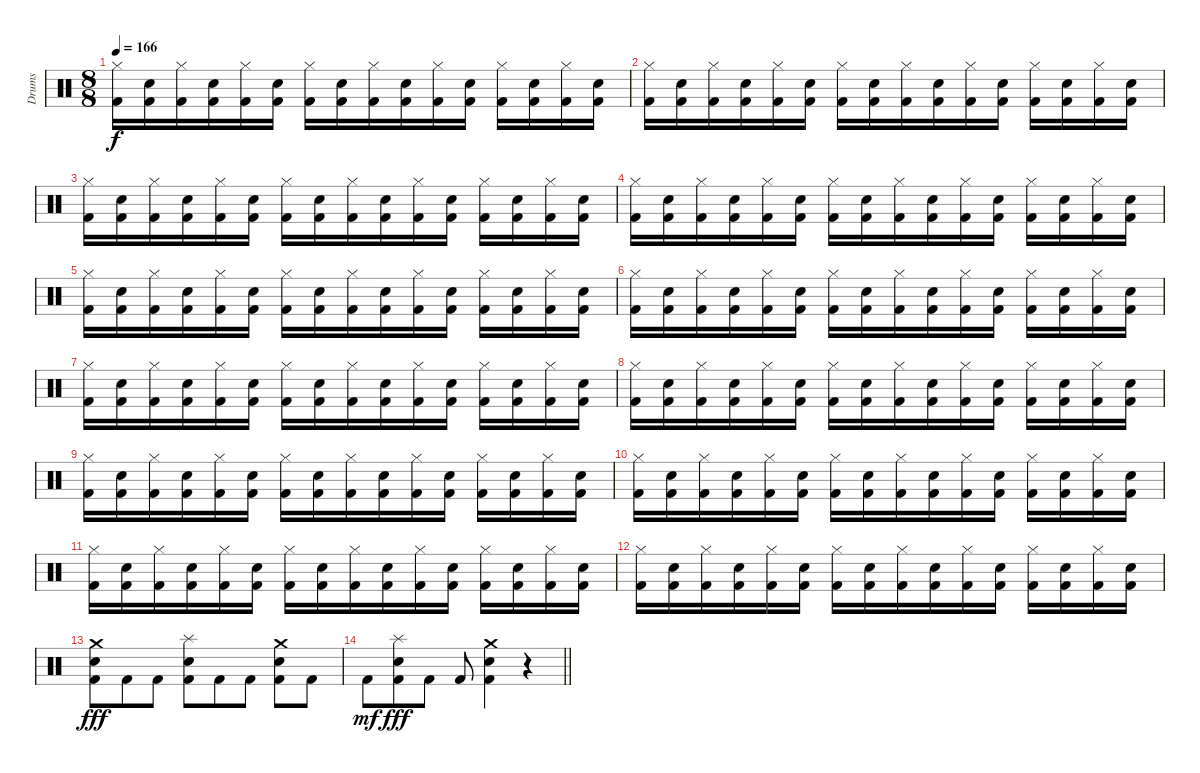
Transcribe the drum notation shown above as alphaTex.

\track ("Drums" "Drums") {instrument percussion}
\staff {score}
\articulation defaults
\ts (8 8)
\tempo 166
\clef neutral
\ks c
("Hi-Hat (closed)" "Kick (hit) 2").16{dy f} ("Electric Snare (hit)" "Kick (hit) 2").16 ("Hi-Hat (closed)" "Kick (hit) 2").16 ("Electric Snare (hit)" "Kick (hit) 2").16 ("Hi-Hat (closed)" "Kick (hit) 2").16 ("Electric Snare (hit)" "Kick (hit) 2").16 ("Hi-Hat (closed)" "Kick (hit) 2").16 ("Electric Snare (hit)" "Kick (hit) 2").16 ("Hi-Hat (closed)" "Kick (hit) 2").16 ("Electric Snare (hit)" "Kick (hit) 2").16 ("Hi-Hat (closed)" "Kick (hit) 2").16 ("Electric Snare (hit)" "Kick (hit) 2").16 ("Hi-Hat (closed)" "Kick (hit) 2").16 ("Electric Snare (hit)" "Kick (hit) 2").16 ("Hi-Hat (closed)" "Kick (hit) 2").16 ("Electric Snare (hit)" "Kick (hit) 2").16 |
("Hi-Hat (closed)" "Kick (hit) 2").16 ("Electric Snare (hit)" "Kick (hit) 2").16 ("Hi-Hat (closed)" "Kick (hit) 2").16 ("Electric Snare (hit)" "Kick (hit) 2").16 ("Hi-Hat (closed)" "Kick (hit) 2").16 ("Electric Snare (hit)" "Kick (hit) 2").16 ("Hi-Hat (closed)" "Kick (hit) 2").16 ("Electric Snare (hit)" "Kick (hit) 2").16 ("Hi-Hat (closed)" "Kick (hit) 2").16 ("Electric Snare (hit)" "Kick (hit) 2").16 ("Hi-Hat (closed)" "Kick (hit) 2").16 ("Electric Snare (hit)" "Kick (hit) 2").16 ("Hi-Hat (closed)" "Kick (hit) 2").16 ("Electric Snare (hit)" "Kick (hit) 2").16 ("Hi-Hat (closed)" "Kick (hit) 2").16 ("Electric Snare (hit)" "Kick (hit) 2").16 |
("Hi-Hat (closed)" "Kick (hit) 2").16 ("Electric Snare (hit)" "Kick (hit) 2").16 ("Hi-Hat (closed)" "Kick (hit) 2").16 ("Electric Snare (hit)" "Kick (hit) 2").16 ("Hi-Hat (closed)" "Kick (hit) 2").16 ("Electric Snare (hit)" "Kick (hit) 2").16 ("Hi-Hat (closed)" "Kick (hit) 2").16 ("Electric Snare (hit)" "Kick (hit) 2").16 ("Hi-Hat (closed)" "Kick (hit) 2").16 ("Electric Snare (hit)" "Kick (hit) 2").16 ("Hi-Hat (closed)" "Kick (hit) 2").16 ("Electric Snare (hit)" "Kick (hit) 2").16 ("Hi-Hat (closed)" "Kick (hit) 2").16 ("Electric Snare (hit)" "Kick (hit) 2").16 ("Hi-Hat (closed)" "Kick (hit) 2").16 ("Electric Snare (hit)" "Kick (hit) 2").16 |
("Hi-Hat (closed)" "Kick (hit) 2").16 ("Electric Snare (hit)" "Kick (hit) 2").16 ("Hi-Hat (closed)" "Kick (hit) 2").16 ("Electric Snare (hit)" "Kick (hit) 2").16 ("Hi-Hat (closed)" "Kick (hit) 2").16 ("Electric Snare (hit)" "Kick (hit) 2").16 ("Hi-Hat (closed)" "Kick (hit) 2").16 ("Electric Snare (hit)" "Kick (hit) 2").16 ("Hi-Hat (closed)" "Kick (hit) 2").16 ("Electric Snare (hit)" "Kick (hit) 2").16 ("Hi-Hat (closed)" "Kick (hit) 2").16 ("Electric Snare (hit)" "Kick (hit) 2").16 ("Hi-Hat (closed)" "Kick (hit) 2").16 ("Electric Snare (hit)" "Kick (hit) 2").16 ("Hi-Hat (closed)" "Kick (hit) 2").16 ("Electric Snare (hit)" "Kick (hit) 2").16 |
("Hi-Hat (closed)" "Kick (hit) 2").16 ("Electric Snare (hit)" "Kick (hit) 2").16 ("Hi-Hat (closed)" "Kick (hit) 2").16 ("Electric Snare (hit)" "Kick (hit) 2").16 ("Hi-Hat (closed)" "Kick (hit) 2").16 ("Electric Snare (hit)" "Kick (hit) 2").16 ("Hi-Hat (closed)" "Kick (hit) 2").16 ("Electric Snare (hit)" "Kick (hit) 2").16 ("Hi-Hat (closed)" "Kick (hit) 2").16 ("Electric Snare (hit)" "Kick (hit) 2").16 ("Hi-Hat (closed)" "Kick (hit) 2").16 ("Electric Snare (hit)" "Kick (hit) 2").16 ("Hi-Hat (closed)" "Kick (hit) 2").16 ("Electric Snare (hit)" "Kick (hit) 2").16 ("Hi-Hat (closed)" "Kick (hit) 2").16 ("Electric Snare (hit)" "Kick (hit) 2").16 |
("Hi-Hat (closed)" "Kick (hit) 2").16 ("Electric Snare (hit)" "Kick (hit) 2").16 ("Hi-Hat (closed)" "Kick (hit) 2").16 ("Electric Snare (hit)" "Kick (hit) 2").16 ("Hi-Hat (closed)" "Kick (hit) 2").16 ("Electric Snare (hit)" "Kick (hit) 2").16 ("Hi-Hat (closed)" "Kick (hit) 2").16 ("Electric Snare (hit)" "Kick (hit) 2").16 ("Hi-Hat (closed)" "Kick (hit) 2").16 ("Electric Snare (hit)" "Kick (hit) 2").16 ("Hi-Hat (closed)" "Kick (hit) 2").16 ("Electric Snare (hit)" "Kick (hit) 2").16 ("Hi-Hat (closed)" "Kick (hit) 2").16 ("Electric Snare (hit)" "Kick (hit) 2").16 ("Hi-Hat (closed)" "Kick (hit) 2").16 ("Electric Snare (hit)" "Kick (hit) 2").16 |
("Hi-Hat (closed)" "Kick (hit) 2").16 ("Electric Snare (hit)" "Kick (hit) 2").16 ("Hi-Hat (closed)" "Kick (hit) 2").16 ("Electric Snare (hit)" "Kick (hit) 2").16 ("Hi-Hat (closed)" "Kick (hit) 2").16 ("Electric Snare (hit)" "Kick (hit) 2").16 ("Hi-Hat (closed)" "Kick (hit) 2").16 ("Electric Snare (hit)" "Kick (hit) 2").16 ("Hi-Hat (closed)" "Kick (hit) 2").16 ("Electric Snare (hit)" "Kick (hit) 2").16 ("Hi-Hat (closed)" "Kick (hit) 2").16 ("Electric Snare (hit)" "Kick (hit) 2").16 ("Hi-Hat (closed)" "Kick (hit) 2").16 ("Electric Snare (hit)" "Kick (hit) 2").16 ("Hi-Hat (closed)" "Kick (hit) 2").16 ("Electric Snare (hit)" "Kick (hit) 2").16 |
("Hi-Hat (closed)" "Kick (hit) 2").16 ("Electric Snare (hit)" "Kick (hit) 2").16 ("Hi-Hat (closed)" "Kick (hit) 2").16 ("Electric Snare (hit)" "Kick (hit) 2").16 ("Hi-Hat (closed)" "Kick (hit) 2").16 ("Electric Snare (hit)" "Kick (hit) 2").16 ("Hi-Hat (closed)" "Kick (hit) 2").16 ("Electric Snare (hit)" "Kick (hit) 2").16 ("Hi-Hat (closed)" "Kick (hit) 2").16 ("Electric Snare (hit)" "Kick (hit) 2").16 ("Hi-Hat (closed)" "Kick (hit) 2").16 ("Electric Snare (hit)" "Kick (hit) 2").16 ("Hi-Hat (closed)" "Kick (hit) 2").16 ("Electric Snare (hit)" "Kick (hit) 2").16 ("Hi-Hat (closed)" "Kick (hit) 2").16 ("Electric Snare (hit)" "Kick (hit) 2").16 |
("Hi-Hat (closed)" "Kick (hit) 2").16 ("Electric Snare (hit)" "Kick (hit) 2").16 ("Hi-Hat (closed)" "Kick (hit) 2").16 ("Electric Snare (hit)" "Kick (hit) 2").16 ("Hi-Hat (closed)" "Kick (hit) 2").16 ("Electric Snare (hit)" "Kick (hit) 2").16 ("Hi-Hat (closed)" "Kick (hit) 2").16 ("Electric Snare (hit)" "Kick (hit) 2").16 ("Hi-Hat (closed)" "Kick (hit) 2").16 ("Electric Snare (hit)" "Kick (hit) 2").16 ("Hi-Hat (closed)" "Kick (hit) 2").16 ("Electric Snare (hit)" "Kick (hit) 2").16 ("Hi-Hat (closed)" "Kick (hit) 2").16 ("Electric Snare (hit)" "Kick (hit) 2").16 ("Hi-Hat (closed)" "Kick (hit) 2").16 ("Electric Snare (hit)" "Kick (hit) 2").16 |
("Hi-Hat (closed)" "Kick (hit) 2").16 ("Electric Snare (hit)" "Kick (hit) 2").16 ("Hi-Hat (closed)" "Kick (hit) 2").16 ("Electric Snare (hit)" "Kick (hit) 2").16 ("Hi-Hat (closed)" "Kick (hit) 2").16 ("Electric Snare (hit)" "Kick (hit) 2").16 ("Hi-Hat (closed)" "Kick (hit) 2").16 ("Electric Snare (hit)" "Kick (hit) 2").16 ("Hi-Hat (closed)" "Kick (hit) 2").16 ("Electric Snare (hit)" "Kick (hit) 2").16 ("Hi-Hat (closed)" "Kick (hit) 2").16 ("Electric Snare (hit)" "Kick (hit) 2").16 ("Hi-Hat (closed)" "Kick (hit) 2").16 ("Electric Snare (hit)" "Kick (hit) 2").16 ("Hi-Hat (closed)" "Kick (hit) 2").16 ("Electric Snare (hit)" "Kick (hit) 2").16 |
("Hi-Hat (closed)" "Kick (hit) 2").16 ("Electric Snare (hit)" "Kick (hit) 2").16 ("Hi-Hat (closed)" "Kick (hit) 2").16 ("Electric Snare (hit)" "Kick (hit) 2").16 ("Hi-Hat (closed)" "Kick (hit) 2").16 ("Electric Snare (hit)" "Kick (hit) 2").16 ("Hi-Hat (closed)" "Kick (hit) 2").16 ("Electric Snare (hit)" "Kick (hit) 2").16 ("Hi-Hat (closed)" "Kick (hit) 2").16 ("Electric Snare (hit)" "Kick (hit) 2").16 ("Hi-Hat (closed)" "Kick (hit) 2").16 ("Electric Snare (hit)" "Kick (hit) 2").16 ("Hi-Hat (closed)" "Kick (hit) 2").16 ("Electric Snare (hit)" "Kick (hit) 2").16 ("Hi-Hat (closed)" "Kick (hit) 2").16 ("Electric Snare (hit)" "Kick (hit) 2").16 |
("Hi-Hat (closed)" "Kick (hit) 2").16 ("Electric Snare (hit)" "Kick (hit) 2").16 ("Hi-Hat (closed)" "Kick (hit) 2").16 ("Electric Snare (hit)" "Kick (hit) 2").16 ("Hi-Hat (closed)" "Kick (hit) 2").16 ("Electric Snare (hit)" "Kick (hit) 2").16 ("Hi-Hat (closed)" "Kick (hit) 2").16 ("Electric Snare (hit)" "Kick (hit) 2").16 ("Hi-Hat (closed)" "Kick (hit) 2").16 ("Electric Snare (hit)" "Kick (hit) 2").16 ("Hi-Hat (closed)" "Kick (hit) 2").16 ("Electric Snare (hit)" "Kick (hit) 2").16 ("Hi-Hat (closed)" "Kick (hit) 2").16 ("Electric Snare (hit)" "Kick (hit) 2").16 ("Hi-Hat (closed)" "Kick (hit) 2").16 ("Electric Snare (hit)" "Kick (hit) 2").16 |
("Crash medium (hit)" "Electric Snare (hit)" "Kick (hit) 2").8{dy fff} "Kick (hit) 2".8 "Kick (hit) 2".8 ("Splash (hit)" "Electric Snare (hit)" "Kick (hit) 2").8 "Kick (hit) 2".8 "Kick (hit) 2".8 ("Crash medium (hit)" "Electric Snare (hit)" "Kick (hit) 2").8 "Kick (hit) 2".8 |
\barLineRight lightlight "Kick (hit) 2".8{dy mf}
("Splash (hit)" "Electric Snare (hit)" "Kick (hit) 2").8{dy fff} "Kick (hit) 2".8 "Kick (hit) 2".8 ("Crash medium (hit)" "Electric Snare (hit)" "Kick (hit) 2").4 r.4
